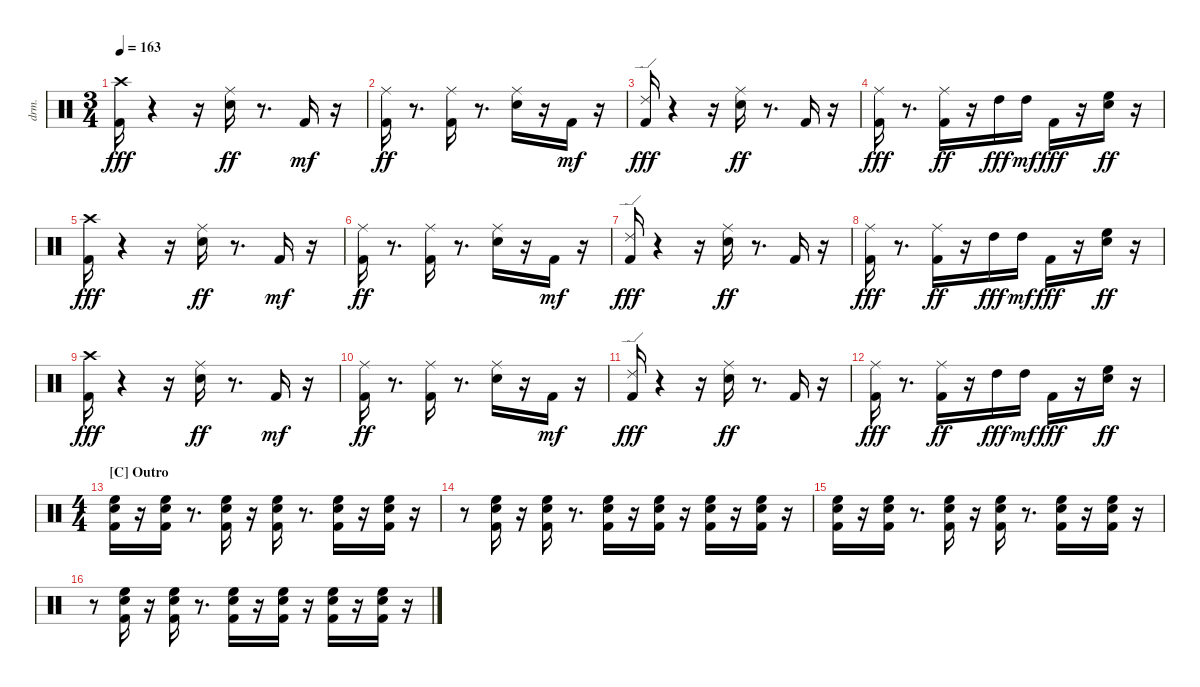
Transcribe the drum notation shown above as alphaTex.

\bracketExtendMode nobrackets
\track ("EZdrummer 3" "drm.") {instrument percussion}
\staff {score}
\articulation defaults
\ts (3 4)
\tempo 163
\clef neutral
\ks aminor
("Kick (hit) 2" "Crash high (hit)"{acc #}).16{dy fff} r.4 r.16 ("Snare (hit) 2" "Ride (middle)"{acc #}).16{dy ff} r.8{d} "Kick (hit) 2".16{dy mf} r.16 |
("Kick (hit) 2" "Ride (middle)"{acc #}).16{dy ff} r.8{d} ("Kick (hit) 2" "Ride (middle)"{acc #}).16 r.8{d} ("Snare (hit) 2" "Ride (middle)"{acc #}).16 r.16 "Kick (hit) 2".16{dy mf} r.16 |
("Kick (hit) 2" "Ride (edge) 2").16{dy fff} r.4 r.16 ("Snare (hit) 2" "Ride (middle)"{acc #}).16{dy ff} r.8{d} "Kick (hit) 2".16 r.16 |
("Kick (hit) 2" "Ride (middle)"{acc #}).16{dy fff} r.8{d} ("Kick (hit) 2" "Ride (middle)"{acc #}).16{dy ff} r.16 "High Tom (hit)".16{dy fff} "High Tom (hit)".16{dy mf} "Kick (hit) 2".16{dy fff} r.16 ("Snare (hit) 2" "High Floor Tom (hit)").16{dy ff} r.16 |
("Kick (hit) 2" "Crash high (hit)"{acc #}).16{dy fff} r.4 r.16 ("Snare (hit) 2" "Ride (middle)"{acc #}).16{dy ff} r.8{d} "Kick (hit) 2".16{dy mf} r.16 |
("Kick (hit) 2" "Ride (middle)"{acc #}).16{dy ff} r.8{d} ("Kick (hit) 2" "Ride (middle)"{acc #}).16 r.8{d} ("Snare (hit) 2" "Ride (middle)"{acc #}).16 r.16 "Kick (hit) 2".16{dy mf} r.16 |
("Kick (hit) 2" "Ride (edge) 2").16{dy fff} r.4 r.16 ("Snare (hit) 2" "Ride (middle)"{acc #}).16{dy ff} r.8{d} "Kick (hit) 2".16 r.16 |
("Kick (hit) 2" "Ride (middle)"{acc #}).16{dy fff} r.8{d} ("Kick (hit) 2" "Ride (middle)"{acc #}).16{dy ff} r.16 "High Tom (hit)".16{dy fff} "High Tom (hit)".16{dy mf} "Kick (hit) 2".16{dy fff} r.16 ("Snare (hit) 2" "High Floor Tom (hit)").16{dy ff} r.16 |
("Kick (hit) 2" "Crash high (hit)"{acc #}).16{dy fff} r.4 r.16 ("Snare (hit) 2" "Ride (middle)"{acc #}).16{dy ff} r.8{d} "Kick (hit) 2".16{dy mf} r.16 |
("Kick (hit) 2" "Ride (middle)"{acc #}).16{dy ff} r.8{d} ("Kick (hit) 2" "Ride (middle)"{acc #}).16 r.8{d} ("Snare (hit) 2" "Ride (middle)"{acc #}).16 r.16 "Kick (hit) 2".16{dy mf} r.16 |
("Kick (hit) 2" "Ride (edge) 2").16{dy fff} r.4 r.16 ("Snare (hit) 2" "Ride (middle)"{acc #}).16{dy ff} r.8{d} "Kick (hit) 2".16 r.16 |
("Kick (hit) 2" "Ride (middle)"{acc #}).16{dy fff} r.8{d} ("Kick (hit) 2" "Ride (middle)"{acc #}).16{dy ff} r.16 "High Tom (hit)".16{dy fff} "High Tom (hit)".16{dy mf} "Kick (hit) 2".16{dy fff} r.16 ("Snare (hit) 2" "High Floor Tom (hit)").16{dy ff} r.16 |
\ts (4 4)
\section ("C" "Outro")
("Kick (hit) 2" "Snare (hit) 2" "High Floor Tom (hit)").16 r.16 ("Kick (hit) 2" "Snare (hit) 2" "High Floor Tom (hit)").16 r.8{d} ("Kick (hit) 2" "Snare (hit) 2" "High Floor Tom (hit)").16 r.16 ("Kick (hit) 2" "Snare (hit) 2" "High Floor Tom (hit)").16 r.8{d} ("Kick (hit) 2" "Snare (hit) 2" "High Floor Tom (hit)").16 r.16 ("Kick (hit) 2" "Snare (hit) 2" "High Floor Tom (hit)").16 r.16 |
r.8 ("Kick (hit) 2" "Snare (hit) 2" "High Floor Tom (hit)").16 r.16 ("Kick (hit) 2" "Snare (hit) 2" "High Floor Tom (hit)").16 r.8{d} ("Kick (hit) 2" "Snare (hit) 2" "High Floor Tom (hit)").16 r.16 ("Kick (hit) 2" "Snare (hit) 2" "High Floor Tom (hit)").16 r.16 ("Kick (hit) 2" "Snare (hit) 2" "High Floor Tom (hit)").16 r.16 ("Kick (hit) 2" "Snare (hit) 2" "High Floor Tom (hit)").16 r.16 |
("Kick (hit) 2" "Snare (hit) 2" "High Floor Tom (hit)").16 r.16 ("Kick (hit) 2" "Snare (hit) 2" "High Floor Tom (hit)").16 r.8{d} ("Kick (hit) 2" "Snare (hit) 2" "High Floor Tom (hit)").16 r.16 ("Kick (hit) 2" "Snare (hit) 2" "High Floor Tom (hit)").16 r.8{d} ("Kick (hit) 2" "Snare (hit) 2" "High Floor Tom (hit)").16 r.16 ("Kick (hit) 2" "Snare (hit) 2" "High Floor Tom (hit)").16 r.16 |
r.8 ("Kick (hit) 2" "Snare (hit) 2" "High Floor Tom (hit)").16 r.16 ("Kick (hit) 2" "Snare (hit) 2" "High Floor Tom (hit)").16 r.8{d} ("Kick (hit) 2" "Snare (hit) 2" "High Floor Tom (hit)").16 r.16 ("Kick (hit) 2" "Snare (hit) 2" "High Floor Tom (hit)").16 r.16 ("Kick (hit) 2" "Snare (hit) 2" "High Floor Tom (hit)").16 r.16 ("Kick (hit) 2" "Snare (hit) 2" "High Floor Tom (hit)").16 r.16
